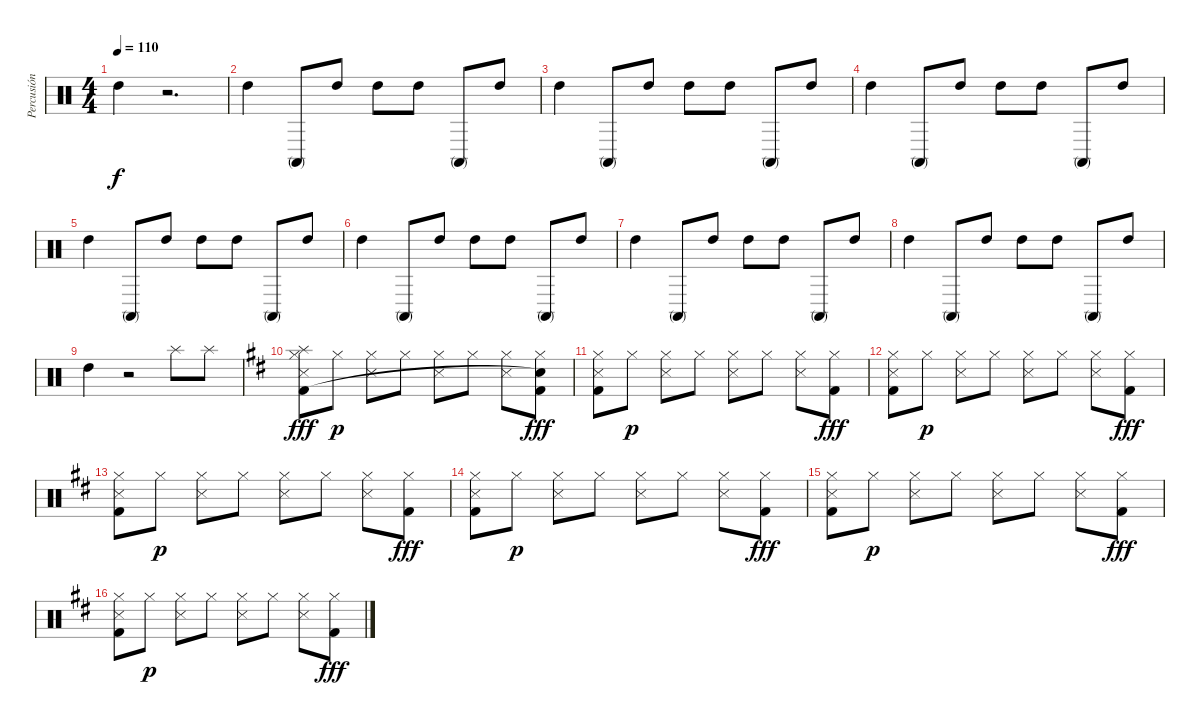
\track ("Percusión" "Percusión") {instrument percussion}
\staff {score}
\articulation defaults
\ts (4 4)
\tempo 110
\clef neutral
\ks c "High Tom (hit)".4{dy f}
r.2{d} |
"High Tom (hit)".4 "Conga high (mute)".8 "High Tom (hit)".8 "High Tom (hit)".8 "High Tom (hit)".8 "Conga high (mute)".8 "High Tom (hit)".8 |
"High Tom (hit)".4 "Conga high (mute)".8 "High Tom (hit)".8 "High Tom (hit)".8 "High Tom (hit)".8 "Conga high (mute)".8 "High Tom (hit)".8 |
"High Tom (hit)".4 "Conga high (mute)".8 "High Tom (hit)".8 "High Tom (hit)".8 "High Tom (hit)".8 "Conga high (mute)".8 "High Tom (hit)".8 |
"High Tom (hit)".4 "Conga high (mute)".8 "High Tom (hit)".8 "High Tom (hit)".8 "High Tom (hit)".8 "Conga high (mute)".8 "High Tom (hit)".8 |
"High Tom (hit)".4 "Conga high (mute)".8 "High Tom (hit)".8 "High Tom (hit)".8 "High Tom (hit)".8 "Conga high (mute)".8 "High Tom (hit)".8 |
"High Tom (hit)".4 "Conga high (mute)".8 "High Tom (hit)".8 "High Tom (hit)".8 "High Tom (hit)".8 "Conga high (mute)".8 "High Tom (hit)".8 |
"High Tom (hit)".4 "Conga high (mute)".8 "High Tom (hit)".8 "High Tom (hit)".8 "High Tom (hit)".8 "Conga high (mute)".8 "High Tom (hit)".8 |
"High Tom (hit)".4 r.2 "Splash (hit)".8 "Splash (hit)".8 |
\ks d
("Hi-Hat (closed)" "Snare (side stick) 3" "Kick (hit) 2" "Splash (hit)").8{dy fff volume 6} "Hi-Hat (closed)".8{dy p} ("Hi-Hat (closed)" "Snare (side stick) 3").8 "Hi-Hat (closed)".8 ("Hi-Hat (closed)" "Snare (side stick) 3").8 "Hi-Hat (closed)".8 ("Hi-Hat (closed)" "Snare (side stick) 3").8 ("Hi-Hat (closed)" "Kick (hit) 2" "Snare (hit)"{t}).8{dy fff} |
("Hi-Hat (closed)" "Snare (side stick) 3" "Kick (hit) 2").8 "Hi-Hat (closed)".8{dy p} ("Hi-Hat (closed)" "Snare (side stick) 3").8 "Hi-Hat (closed)".8 ("Hi-Hat (closed)" "Snare (side stick) 3").8 "Hi-Hat (closed)".8 ("Hi-Hat (closed)" "Snare (side stick) 3").8 ("Hi-Hat (closed)" "Kick (hit) 2").8{dy fff} |
("Hi-Hat (closed)" "Snare (side stick) 3" "Kick (hit) 2").8 "Hi-Hat (closed)".8{dy p} ("Hi-Hat (closed)" "Snare (side stick) 3").8 "Hi-Hat (closed)".8 ("Hi-Hat (closed)" "Snare (side stick) 3").8 "Hi-Hat (closed)".8 ("Hi-Hat (closed)" "Snare (side stick) 3").8 ("Hi-Hat (closed)" "Kick (hit) 2").8{dy fff} |
("Hi-Hat (closed)" "Snare (side stick) 3" "Kick (hit) 2").8 "Hi-Hat (closed)".8{dy p} ("Hi-Hat (closed)" "Snare (side stick) 3").8 "Hi-Hat (closed)".8 ("Hi-Hat (closed)" "Snare (side stick) 3").8 "Hi-Hat (closed)".8 ("Hi-Hat (closed)" "Snare (side stick) 3").8 ("Hi-Hat (closed)" "Kick (hit) 2").8{dy fff} |
("Hi-Hat (closed)" "Snare (side stick) 3" "Kick (hit) 2").8 "Hi-Hat (closed)".8{dy p} ("Hi-Hat (closed)" "Snare (side stick) 3").8 "Hi-Hat (closed)".8 ("Hi-Hat (closed)" "Snare (side stick) 3").8 "Hi-Hat (closed)".8 ("Hi-Hat (closed)" "Snare (side stick) 3").8 ("Hi-Hat (closed)" "Kick (hit) 2").8{dy fff} |
("Hi-Hat (closed)" "Snare (side stick) 3" "Kick (hit) 2").8 "Hi-Hat (closed)".8{dy p} ("Hi-Hat (closed)" "Snare (side stick) 3").8 "Hi-Hat (closed)".8 ("Hi-Hat (closed)" "Snare (side stick) 3").8 "Hi-Hat (closed)".8 ("Hi-Hat (closed)" "Snare (side stick) 3").8 ("Hi-Hat (closed)" "Kick (hit) 2").8{dy fff} |
("Hi-Hat (closed)" "Snare (side stick) 3" "Kick (hit) 2").8 "Hi-Hat (closed)".8{dy p} ("Hi-Hat (closed)" "Snare (side stick) 3").8 "Hi-Hat (closed)".8 ("Hi-Hat (closed)" "Snare (side stick) 3").8 "Hi-Hat (closed)".8 ("Hi-Hat (closed)" "Snare (side stick) 3").8 ("Hi-Hat (closed)" "Kick (hit) 2").8{dy fff}
